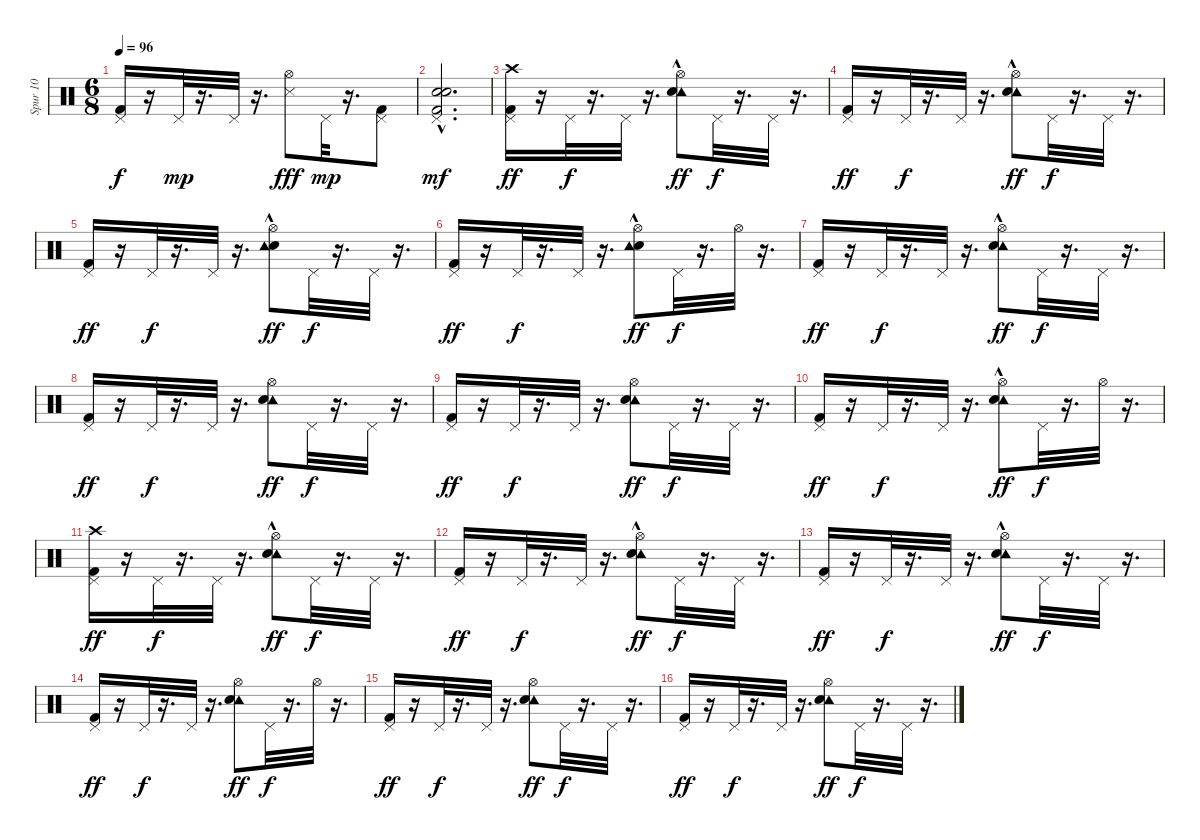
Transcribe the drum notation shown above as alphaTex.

\track ("Spur 10" "Spur 10") {instrument percussion}
\staff {score}
\articulation defaults
\ts (6 8)
\tempo 96
\clef neutral
\ks c
("Pedal Hi-Hat (hit)" "Kick (hit) 2").16{dy f} r.16 "Pedal Hi-Hat (hit)".32{dy mp} r.16{d} "Pedal Hi-Hat (hit)".32 r.16{d} ("Snare (side stick) 3" "Hi-Hat (open)").8{dy fff} "Pedal Hi-Hat (hit)".32{dy mp} r.16{d} ("Kick (hit) 2" "Pedal Hi-Hat (hit)").8 |
("Electric Snare (hit)"{hac} "Electric Snare (hit)"{hac} "Pedal Hi-Hat (hit)" "Kick (hit) 2").2{d dy mf} |
("Crash high (hit)" "Pedal Hi-Hat (hit)" "Kick (hit) 2").16{dy ff} r.16 "Pedal Hi-Hat (hit)".32{dy f} r.16{d} "Pedal Hi-Hat (hit)".32 r.16{d} ("Tambourine (hit)"{hac} "Electric Snare (hit)" "Hi-Hat (open)").8{dy ff} "Pedal Hi-Hat (hit)".32{dy f} r.16{d} "Pedal Hi-Hat (hit)".32 r.16{d} |
("Pedal Hi-Hat (hit)" "Kick (hit) 2").16{dy ff} r.16 "Pedal Hi-Hat (hit)".32{dy f} r.16{d} "Pedal Hi-Hat (hit)".32 r.16{d} ("Tambourine (hit)"{hac} "Electric Snare (hit)" "Hi-Hat (open)").8{dy ff} "Pedal Hi-Hat (hit)".32{dy f} r.16{d} "Pedal Hi-Hat (hit)".32 r.16{d} |
("Pedal Hi-Hat (hit)" "Kick (hit) 2").16{dy ff} r.16 "Pedal Hi-Hat (hit)".32{dy f} r.16{d} "Pedal Hi-Hat (hit)".32 r.16{d} ("Electric Snare (hit)" "Hi-Hat (open)" "Tambourine (hit)"{hac}).8{dy ff} "Pedal Hi-Hat (hit)".32{dy f} r.16{d} "Pedal Hi-Hat (hit)".32 r.16{d} |
("Pedal Hi-Hat (hit)" "Kick (hit) 2").16{dy ff} r.16 "Pedal Hi-Hat (hit)".32{dy f} r.16{d} "Pedal Hi-Hat (hit)".32 r.16{d} ("Electric Snare (hit)" "Hi-Hat (open)" "Tambourine (hit)"{hac}).8{dy ff} "Pedal Hi-Hat (hit)".32{dy f} r.16{d} "Hi-Hat (open)".32 r.16{d} |
("Pedal Hi-Hat (hit)" "Kick (hit) 2").16{dy ff} r.16 "Pedal Hi-Hat (hit)".32{dy f} r.16{d} "Pedal Hi-Hat (hit)".32 r.16{d} ("Tambourine (hit)"{hac} "Electric Snare (hit)" "Hi-Hat (open)").8{dy ff} "Pedal Hi-Hat (hit)".32{dy f} r.16{d} "Pedal Hi-Hat (hit)".32 r.16{d} |
("Pedal Hi-Hat (hit)" "Kick (hit) 2").16{dy ff} r.16 "Pedal Hi-Hat (hit)".32{dy f} r.16{d} "Pedal Hi-Hat (hit)".32 r.16{d} ("Tambourine (hit)" "Electric Snare (hit)" "Hi-Hat (open)").8{dy ff} "Pedal Hi-Hat (hit)".32{dy f} r.16{d} "Pedal Hi-Hat (hit)".32 r.16{d} |
("Pedal Hi-Hat (hit)" "Kick (hit) 2").16{dy ff} r.16 "Pedal Hi-Hat (hit)".32{dy f} r.16{d} "Pedal Hi-Hat (hit)".32 r.16{d} ("Tambourine (hit)" "Electric Snare (hit)" "Hi-Hat (open)").8{dy ff} "Pedal Hi-Hat (hit)".32{dy f} r.16{d} "Pedal Hi-Hat (hit)".32 r.16{d} |
("Pedal Hi-Hat (hit)" "Kick (hit) 2").16{dy ff} r.16 "Pedal Hi-Hat (hit)".32{dy f} r.16{d} "Pedal Hi-Hat (hit)".32 r.16{d} ("Tambourine (hit)"{hac} "Electric Snare (hit)" "Hi-Hat (open)").8{dy ff} "Pedal Hi-Hat (hit)".32{dy f} r.16{d} "Hi-Hat (open)".32 r.16{d} |
("Crash high (hit)" "Pedal Hi-Hat (hit)" "Kick (hit) 2").16{dy ff} r.16 "Pedal Hi-Hat (hit)".32{dy f} r.16{d} "Pedal Hi-Hat (hit)".32 r.16{d} ("Tambourine (hit)"{hac} "Electric Snare (hit)" "Hi-Hat (open)").8{dy ff} "Pedal Hi-Hat (hit)".32{dy f} r.16{d} "Pedal Hi-Hat (hit)".32 r.16{d} |
("Pedal Hi-Hat (hit)" "Kick (hit) 2").16{dy ff} r.16 "Pedal Hi-Hat (hit)".32{dy f} r.16{d} "Pedal Hi-Hat (hit)".32 r.16{d} ("Tambourine (hit)"{hac} "Electric Snare (hit)" "Hi-Hat (open)").8{dy ff} "Pedal Hi-Hat (hit)".32{dy f} r.16{d} "Pedal Hi-Hat (hit)".32 r.16{d} |
("Pedal Hi-Hat (hit)" "Kick (hit) 2").16{dy ff} r.16 "Pedal Hi-Hat (hit)".32{dy f} r.16{d} "Pedal Hi-Hat (hit)".32 r.16{d} ("Tambourine (hit)"{hac} "Electric Snare (hit)" "Hi-Hat (open)").8{dy ff} "Pedal Hi-Hat (hit)".32{dy f} r.16{d} "Pedal Hi-Hat (hit)".32 r.16{d} |
("Pedal Hi-Hat (hit)" "Kick (hit) 2").16{dy ff} r.16 "Pedal Hi-Hat (hit)".32{dy f} r.16{d} "Pedal Hi-Hat (hit)".32 r.16{d} ("Tambourine (hit)" "Electric Snare (hit)" "Hi-Hat (open)").8{dy ff} "Pedal Hi-Hat (hit)".32{dy f} r.16{d} "Hi-Hat (open)".32 r.16{d} |
("Pedal Hi-Hat (hit)" "Kick (hit) 2").16{dy ff} r.16 "Pedal Hi-Hat (hit)".32{dy f} r.16{d} "Pedal Hi-Hat (hit)".32 r.16{d} ("Tambourine (hit)" "Electric Snare (hit)" "Hi-Hat (open)").8{dy ff} "Pedal Hi-Hat (hit)".32{dy f} r.16{d} "Pedal Hi-Hat (hit)".32 r.16{d} |
("Pedal Hi-Hat (hit)" "Kick (hit) 2").16{dy ff} r.16 "Pedal Hi-Hat (hit)".32{dy f} r.16{d} "Pedal Hi-Hat (hit)".32 r.16{d} ("Tambourine (hit)" "Electric Snare (hit)" "Hi-Hat (open)").8{dy ff} "Pedal Hi-Hat (hit)".32{dy f} r.16{d} "Pedal Hi-Hat (hit)".32 r.16{d}
